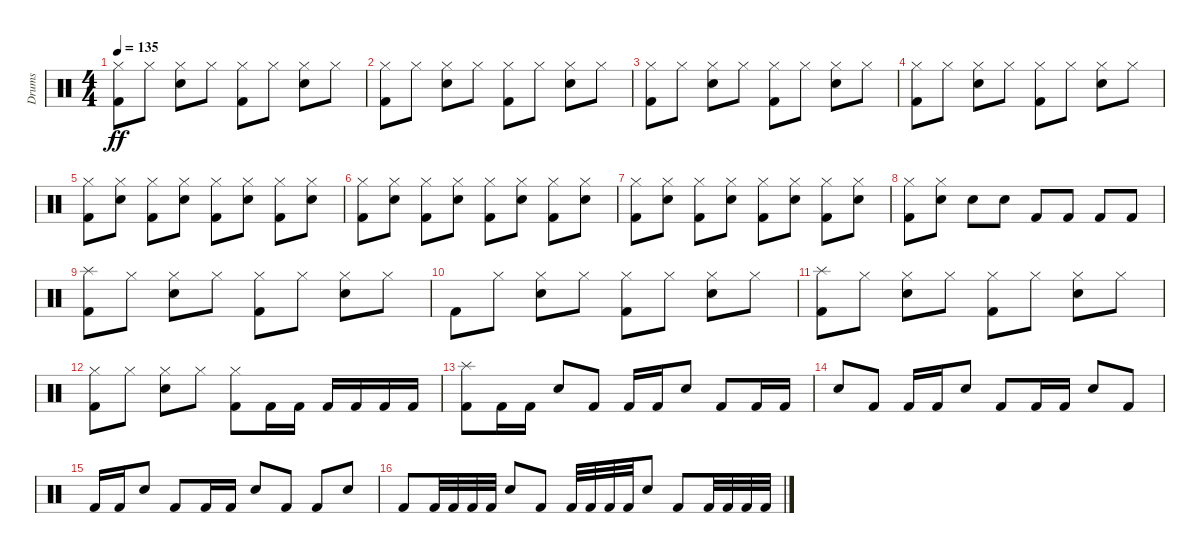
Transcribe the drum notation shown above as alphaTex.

\track ("Drums" "Drums") {instrument percussion}
\staff {score}
\articulation defaults
\ts (4 4)
\tempo 135
\clef neutral
\ks c
("Kick (hit) 2" "Hi-Hat (closed)").8{dy ff} "Hi-Hat (closed)".8 ("Electric Snare (hit)" "Hi-Hat (closed)").8 "Hi-Hat (closed)".8 ("Kick (hit) 2" "Hi-Hat (closed)").8 "Hi-Hat (closed)".8 ("Electric Snare (hit)" "Hi-Hat (closed)").8 "Hi-Hat (closed)".8 |
("Kick (hit) 2" "Hi-Hat (closed)").8 "Hi-Hat (closed)".8 ("Electric Snare (hit)" "Hi-Hat (closed)").8 "Hi-Hat (closed)".8 ("Kick (hit) 2" "Hi-Hat (closed)").8 "Hi-Hat (closed)".8 ("Electric Snare (hit)" "Hi-Hat (closed)").8 "Hi-Hat (closed)".8 |
("Kick (hit) 2" "Hi-Hat (closed)").8 "Hi-Hat (closed)".8 ("Electric Snare (hit)" "Hi-Hat (closed)").8 "Hi-Hat (closed)".8 ("Kick (hit) 2" "Hi-Hat (closed)").8 "Hi-Hat (closed)".8 ("Electric Snare (hit)" "Hi-Hat (closed)").8 "Hi-Hat (closed)".8 |
("Kick (hit) 2" "Hi-Hat (closed)").8 "Hi-Hat (closed)".8 ("Electric Snare (hit)" "Hi-Hat (closed)").8 "Hi-Hat (closed)".8 ("Kick (hit) 2" "Hi-Hat (closed)").8 "Hi-Hat (closed)".8 ("Electric Snare (hit)" "Hi-Hat (closed)").8 "Hi-Hat (closed)".8 |
("Kick (hit) 2" "Hi-Hat (closed)").8 ("Electric Snare (hit)" "Hi-Hat (closed)").8 ("Kick (hit) 2" "Hi-Hat (closed)").8 ("Electric Snare (hit)" "Hi-Hat (closed)").8 ("Kick (hit) 2" "Hi-Hat (closed)").8 ("Electric Snare (hit)" "Hi-Hat (closed)").8 ("Kick (hit) 2" "Hi-Hat (closed)").8 ("Electric Snare (hit)" "Hi-Hat (closed)").8 |
("Kick (hit) 2" "Hi-Hat (closed)").8 ("Electric Snare (hit)" "Hi-Hat (closed)").8 ("Kick (hit) 2" "Hi-Hat (closed)").8 ("Electric Snare (hit)" "Hi-Hat (closed)").8 ("Kick (hit) 2" "Hi-Hat (closed)").8 ("Electric Snare (hit)" "Hi-Hat (closed)").8 ("Kick (hit) 2" "Hi-Hat (closed)").8 ("Electric Snare (hit)" "Hi-Hat (closed)").8 |
("Kick (hit) 2" "Hi-Hat (closed)").8 ("Electric Snare (hit)" "Hi-Hat (closed)").8 ("Kick (hit) 2" "Hi-Hat (closed)").8 ("Electric Snare (hit)" "Hi-Hat (closed)").8 ("Kick (hit) 2" "Hi-Hat (closed)").8 ("Electric Snare (hit)" "Hi-Hat (closed)").8 ("Kick (hit) 2" "Hi-Hat (closed)").8 ("Electric Snare (hit)" "Hi-Hat (closed)").8 |
("Kick (hit) 2" "Hi-Hat (closed)").8 ("Electric Snare (hit)" "Hi-Hat (closed)").8 "Electric Snare (hit)".8 "Electric Snare (hit)".8 "Kick (hit) 2".8 "Kick (hit) 2".8 "Kick (hit) 2".8 "Kick (hit) 2".8 |
("Kick (hit) 2" "Splash (hit)").8 "Hi-Hat (closed)".8 ("Electric Snare (hit)" "Hi-Hat (closed)").8 "Hi-Hat (closed)".8 ("Kick (hit) 2" "Hi-Hat (closed)").8 "Hi-Hat (closed)".8 ("Electric Snare (hit)" "Hi-Hat (closed)").8 "Hi-Hat (closed)".8 |
"Kick (hit) 2".8 "Hi-Hat (closed)".8 ("Electric Snare (hit)" "Hi-Hat (closed)").8 "Hi-Hat (closed)".8 ("Kick (hit) 2" "Hi-Hat (closed)").8 "Hi-Hat (closed)".8 ("Electric Snare (hit)" "Hi-Hat (closed)").8 "Hi-Hat (closed)".8 |
("Kick (hit) 2" "Splash (hit)").8 "Hi-Hat (closed)".8 ("Electric Snare (hit)" "Hi-Hat (closed)").8 "Hi-Hat (closed)".8 ("Kick (hit) 2" "Hi-Hat (closed)").8 "Hi-Hat (closed)".8 ("Electric Snare (hit)" "Hi-Hat (closed)").8 "Hi-Hat (closed)".8 |
("Kick (hit) 2" "Hi-Hat (closed)").8 "Hi-Hat (closed)".8 ("Electric Snare (hit)" "Hi-Hat (closed)").8 "Hi-Hat (closed)".8 ("Kick (hit) 2" "Hi-Hat (closed)").8 "Kick (hit) 2".16 "Kick (hit) 2".16 "Kick (hit) 2".16 "Kick (hit) 2".16 "Kick (hit) 2".16 "Kick (hit) 2".16 |
("Kick (hit) 2" "Splash (hit)").8 "Kick (hit) 2".16 "Kick (hit) 2".16 "Electric Snare (hit)".8 "Kick (hit) 2".8 "Kick (hit) 2".16 "Kick (hit) 2".16 "Electric Snare (hit)".8 "Kick (hit) 2".8 "Kick (hit) 2".16 "Kick (hit) 2".16 |
"Electric Snare (hit)".8 "Kick (hit) 2".8 "Kick (hit) 2".16 "Kick (hit) 2".16 "Electric Snare (hit)".8 "Kick (hit) 2".8 "Kick (hit) 2".16 "Kick (hit) 2".16 "Electric Snare (hit)".8 "Kick (hit) 2".8 |
"Kick (hit) 2".16 "Kick (hit) 2".16 "Electric Snare (hit)".8 "Kick (hit) 2".8 "Kick (hit) 2".16 "Kick (hit) 2".16 "Electric Snare (hit)".8 "Kick (hit) 2".8 "Kick (hit) 2".8 "Electric Snare (hit)".8 |
"Kick (hit) 2".8 "Kick (hit) 2".32 "Kick (hit) 2".32 "Kick (hit) 2".32 "Kick (hit) 2".32 "Electric Snare (hit)".8 "Kick (hit) 2".8 "Kick (hit) 2".32 "Kick (hit) 2".32 "Kick (hit) 2".32 "Kick (hit) 2".32 "Electric Snare (hit)".8 "Kick (hit) 2".8 "Kick (hit) 2".32 "Kick (hit) 2".32 "Kick (hit) 2".32 "Kick (hit) 2".32
